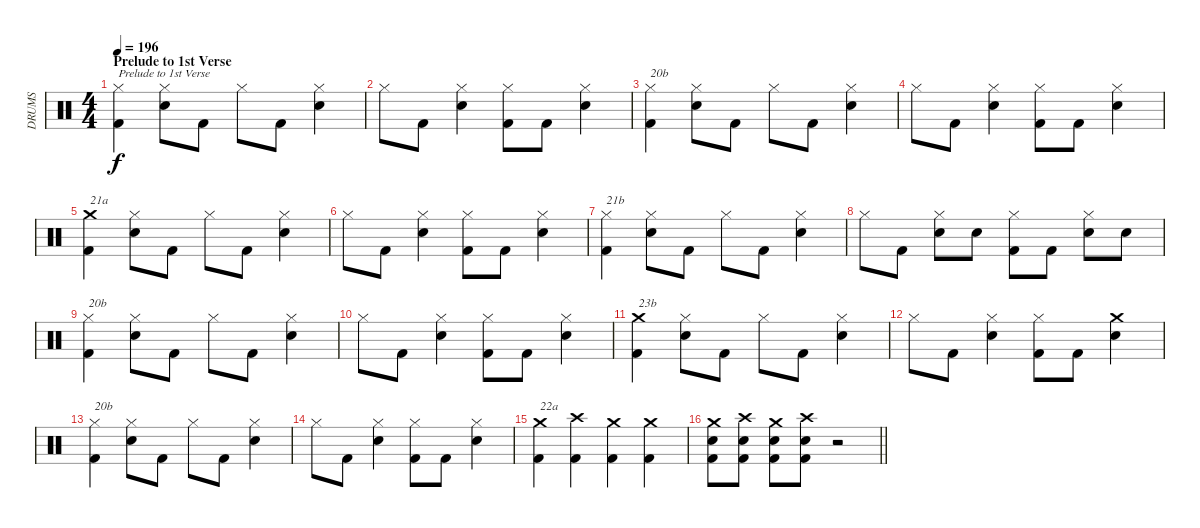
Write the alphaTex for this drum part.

\track ("DRUMS" "DRUMS") {instrument percussion}
\staff {score}
\articulation defaults
\ts (4 4)
\section ("" "Prelude to 1st Verse")
\tempo 196
\clef neutral
\ks c
("Hi-Hat (closed)" "Kick (hit) 2").4{txt "Prelude to 1st Verse" dy f} ("Hi-Hat (closed)" "Snare (hit) 2").8 "Kick (hit) 2".8 "Hi-Hat (closed)".8 "Kick (hit) 2".8 ("Hi-Hat (closed)" "Snare (hit) 2").4 |
"Hi-Hat (closed)".8 "Kick (hit) 2".8 ("Hi-Hat (closed)" "Snare (hit) 2").4 ("Hi-Hat (closed)" "Kick (hit) 2").8 "Kick (hit) 2".8 ("Hi-Hat (closed)" "Snare (hit) 2").4 |
("Hi-Hat (closed)" "Kick (hit) 2").4{txt "20b"} ("Hi-Hat (closed)" "Snare (hit) 2").8 "Kick (hit) 2".8 "Hi-Hat (closed)".8 "Kick (hit) 2".8 ("Hi-Hat (closed)" "Snare (hit) 2").4 |
"Hi-Hat (closed)".8 "Kick (hit) 2".8 ("Hi-Hat (closed)" "Snare (hit) 2").4 ("Hi-Hat (closed)" "Kick (hit) 2").8 "Kick (hit) 2".8 ("Hi-Hat (closed)" "Snare (hit) 2").4 |
("Crash medium (hit)" "Kick (hit) 2").4{txt "21a"} ("Hi-Hat (closed)" "Snare (hit) 2").8 "Kick (hit) 2".8 "Hi-Hat (closed)".8 "Kick (hit) 2".8 ("Hi-Hat (closed)" "Snare (hit) 2").4 |
"Hi-Hat (closed)".8 "Kick (hit) 2".8 ("Hi-Hat (closed)" "Snare (hit) 2").4 ("Hi-Hat (closed)" "Kick (hit) 2").8 "Kick (hit) 2".8 ("Hi-Hat (closed)" "Snare (hit) 2").4 |
("Hi-Hat (closed)" "Kick (hit) 2").4{txt "21b"} ("Hi-Hat (closed)" "Snare (hit) 2").8 "Kick (hit) 2".8 "Hi-Hat (closed)".8 "Kick (hit) 2".8 ("Hi-Hat (closed)" "Snare (hit) 2").4 |
"Hi-Hat (closed)".8 "Kick (hit) 2".8 ("Hi-Hat (closed)" "Snare (hit) 2").8 "Snare (hit) 2".8 ("Hi-Hat (closed)" "Kick (hit) 2").8 "Kick (hit) 2".8 ("Hi-Hat (closed)" "Snare (hit) 2").8 "Snare (hit) 2".8 |
("Hi-Hat (closed)" "Kick (hit) 2").4{txt "20b"} ("Hi-Hat (closed)" "Snare (hit) 2").8 "Kick (hit) 2".8 "Hi-Hat (closed)".8 "Kick (hit) 2".8 ("Hi-Hat (closed)" "Snare (hit) 2").4 |
"Hi-Hat (closed)".8 "Kick (hit) 2".8 ("Hi-Hat (closed)" "Snare (hit) 2").4 ("Hi-Hat (closed)" "Kick (hit) 2").8 "Kick (hit) 2".8 ("Hi-Hat (closed)" "Snare (hit) 2").4 |
("Crash medium (hit)" "Kick (hit) 2").4{txt "23b"} ("Hi-Hat (closed)" "Snare (hit) 2").8 "Kick (hit) 2".8 "Hi-Hat (closed)".8 "Kick (hit) 2".8 ("Hi-Hat (closed)" "Snare (hit) 2").4 |
"Hi-Hat (closed)".8 "Kick (hit) 2".8 ("Hi-Hat (closed)" "Snare (hit) 2").4 ("Hi-Hat (closed)" "Kick (hit) 2").8 "Kick (hit) 2".8 ("Crash medium (hit)" "Snare (hit) 2").4 |
("Hi-Hat (closed)" "Kick (hit) 2").4{txt "20b"} ("Hi-Hat (closed)" "Snare (hit) 2").8 "Kick (hit) 2".8 "Hi-Hat (closed)".8 "Kick (hit) 2".8 ("Hi-Hat (closed)" "Snare (hit) 2").4 |
"Hi-Hat (closed)".8 "Kick (hit) 2".8 ("Hi-Hat (closed)" "Snare (hit) 2").4 ("Hi-Hat (closed)" "Kick (hit) 2").8 "Kick (hit) 2".8 ("Hi-Hat (closed)" "Snare (hit) 2").4 |
("Crash medium (hit)" "Kick (hit) 2").4{txt "22a"} ("Crash high (hit)" "Kick (hit) 2").4 ("Crash medium (hit)" "Kick (hit) 2").4 ("Crash medium (hit)" "Kick (hit) 2").4 |
\barLineRight lightlight
("Crash medium (hit)" "Snare (hit) 2" "Kick (hit) 2").8 ("Crash high (hit)" "Snare (hit) 2" "Kick (hit) 2").8 ("Crash medium (hit)" "Snare (hit) 2" "Kick (hit) 2").8 ("Crash high (hit)" "Snare (hit) 2" "Kick (hit) 2").8 r.2
